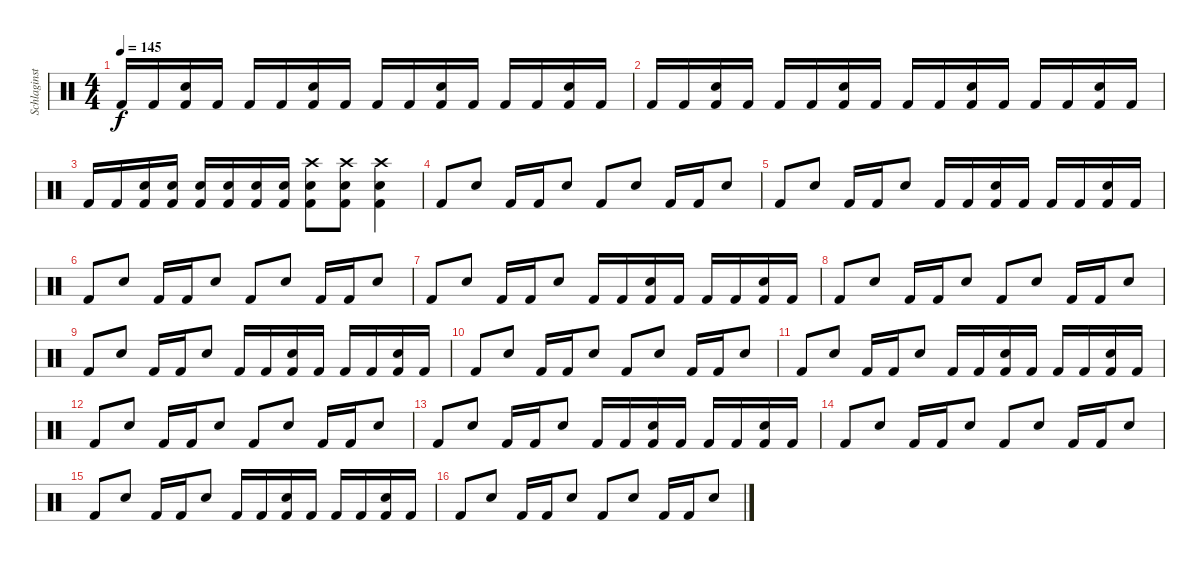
\track ("Schlaginstrumente - Auswahl" "Schlaginst") {instrument percussion}
\staff {score}
\articulation defaults
\ts (4 4)
\tempo 145
\clef neutral
\ks c "Kick (hit) 2".16{dy f} "Kick (hit) 2".16
("Snare (hit) 2" "Kick (hit) 2").16 "Kick (hit) 2".16 "Kick (hit) 2".16 "Kick (hit) 2".16 ("Snare (hit) 2" "Kick (hit) 2").16 "Kick (hit) 2".16 "Kick (hit) 2".16 "Kick (hit) 2".16 ("Snare (hit) 2" "Kick (hit) 2").16 "Kick (hit) 2".16 "Kick (hit) 2".16 "Kick (hit) 2".16 ("Snare (hit) 2" "Kick (hit) 2").16 "Kick (hit) 2".16 |
"Kick (hit) 2".16 "Kick (hit) 2".16 ("Snare (hit) 2" "Kick (hit) 2").16 "Kick (hit) 2".16 "Kick (hit) 2".16 "Kick (hit) 2".16 ("Snare (hit) 2" "Kick (hit) 2").16 "Kick (hit) 2".16 "Kick (hit) 2".16 "Kick (hit) 2".16 ("Snare (hit) 2" "Kick (hit) 2").16 "Kick (hit) 2".16 "Kick (hit) 2".16 "Kick (hit) 2".16 ("Snare (hit) 2" "Kick (hit) 2").16 "Kick (hit) 2".16 |
"Kick (hit) 2".16 "Kick (hit) 2".16 ("Snare (hit) 2" "Kick (hit) 2").16 ("Snare (hit) 2" "Kick (hit) 2").16 ("Snare (hit) 2" "Kick (hit) 2").16 ("Snare (hit) 2" "Kick (hit) 2").16 ("Snare (hit) 2" "Kick (hit) 2").16 ("Snare (hit) 2" "Kick (hit) 2").16 ("Crash high (hit)" "Snare (hit) 2" "Kick (hit) 2").8 ("Crash high (hit)" "Snare (hit) 2" "Kick (hit) 2").8 ("Crash high (hit)" "Snare (hit) 2" "Kick (hit) 2").4 |
"Kick (hit) 2".8 "Snare (hit) 2".8 "Kick (hit) 2".16 "Kick (hit) 2".16 "Snare (hit) 2".8 "Kick (hit) 2".8 "Snare (hit) 2".8 "Kick (hit) 2".16 "Kick (hit) 2".16 "Snare (hit) 2".8 |
"Kick (hit) 2".8 "Snare (hit) 2".8 "Kick (hit) 2".16 "Kick (hit) 2".16 "Snare (hit) 2".8 "Kick (hit) 2".16 "Kick (hit) 2".16 ("Snare (hit) 2" "Kick (hit) 2").16 "Kick (hit) 2".16 "Kick (hit) 2".16 "Kick (hit) 2".16 ("Snare (hit) 2" "Kick (hit) 2").16 "Kick (hit) 2".16 |
"Kick (hit) 2".8 "Snare (hit) 2".8 "Kick (hit) 2".16 "Kick (hit) 2".16 "Snare (hit) 2".8 "Kick (hit) 2".8 "Snare (hit) 2".8 "Kick (hit) 2".16 "Kick (hit) 2".16 "Snare (hit) 2".8 |
"Kick (hit) 2".8 "Snare (hit) 2".8 "Kick (hit) 2".16 "Kick (hit) 2".16 "Snare (hit) 2".8 "Kick (hit) 2".16 "Kick (hit) 2".16 ("Snare (hit) 2" "Kick (hit) 2").16 "Kick (hit) 2".16 "Kick (hit) 2".16 "Kick (hit) 2".16 ("Snare (hit) 2" "Kick (hit) 2").16 "Kick (hit) 2".16 |
"Kick (hit) 2".8 "Snare (hit) 2".8 "Kick (hit) 2".16 "Kick (hit) 2".16 "Snare (hit) 2".8 "Kick (hit) 2".8 "Snare (hit) 2".8 "Kick (hit) 2".16 "Kick (hit) 2".16 "Snare (hit) 2".8 |
"Kick (hit) 2".8 "Snare (hit) 2".8 "Kick (hit) 2".16 "Kick (hit) 2".16 "Snare (hit) 2".8 "Kick (hit) 2".16 "Kick (hit) 2".16 ("Snare (hit) 2" "Kick (hit) 2").16 "Kick (hit) 2".16 "Kick (hit) 2".16 "Kick (hit) 2".16 ("Snare (hit) 2" "Kick (hit) 2").16 "Kick (hit) 2".16 |
"Kick (hit) 2".8 "Snare (hit) 2".8 "Kick (hit) 2".16 "Kick (hit) 2".16 "Snare (hit) 2".8 "Kick (hit) 2".8 "Snare (hit) 2".8 "Kick (hit) 2".16 "Kick (hit) 2".16 "Snare (hit) 2".8 |
"Kick (hit) 2".8 "Snare (hit) 2".8 "Kick (hit) 2".16 "Kick (hit) 2".16 "Snare (hit) 2".8 "Kick (hit) 2".16 "Kick (hit) 2".16 ("Snare (hit) 2" "Kick (hit) 2").16 "Kick (hit) 2".16 "Kick (hit) 2".16 "Kick (hit) 2".16 ("Snare (hit) 2" "Kick (hit) 2").16 "Kick (hit) 2".16 |
"Kick (hit) 2".8 "Snare (hit) 2".8 "Kick (hit) 2".16 "Kick (hit) 2".16 "Snare (hit) 2".8 "Kick (hit) 2".8 "Snare (hit) 2".8 "Kick (hit) 2".16 "Kick (hit) 2".16 "Snare (hit) 2".8 |
"Kick (hit) 2".8 "Snare (hit) 2".8 "Kick (hit) 2".16 "Kick (hit) 2".16 "Snare (hit) 2".8 "Kick (hit) 2".16 "Kick (hit) 2".16 ("Snare (hit) 2" "Kick (hit) 2").16 "Kick (hit) 2".16 "Kick (hit) 2".16 "Kick (hit) 2".16 ("Snare (hit) 2" "Kick (hit) 2").16 "Kick (hit) 2".16 |
"Kick (hit) 2".8 "Snare (hit) 2".8 "Kick (hit) 2".16 "Kick (hit) 2".16 "Snare (hit) 2".8 "Kick (hit) 2".8 "Snare (hit) 2".8 "Kick (hit) 2".16 "Kick (hit) 2".16 "Snare (hit) 2".8 |
"Kick (hit) 2".8 "Snare (hit) 2".8 "Kick (hit) 2".16 "Kick (hit) 2".16 "Snare (hit) 2".8 "Kick (hit) 2".16 "Kick (hit) 2".16 ("Snare (hit) 2" "Kick (hit) 2").16 "Kick (hit) 2".16 "Kick (hit) 2".16 "Kick (hit) 2".16 ("Snare (hit) 2" "Kick (hit) 2").16 "Kick (hit) 2".16 |
"Kick (hit) 2".8 "Snare (hit) 2".8 "Kick (hit) 2".16 "Kick (hit) 2".16 "Snare (hit) 2".8 "Kick (hit) 2".8 "Snare (hit) 2".8 "Kick (hit) 2".16 "Kick (hit) 2".16 "Snare (hit) 2".8
